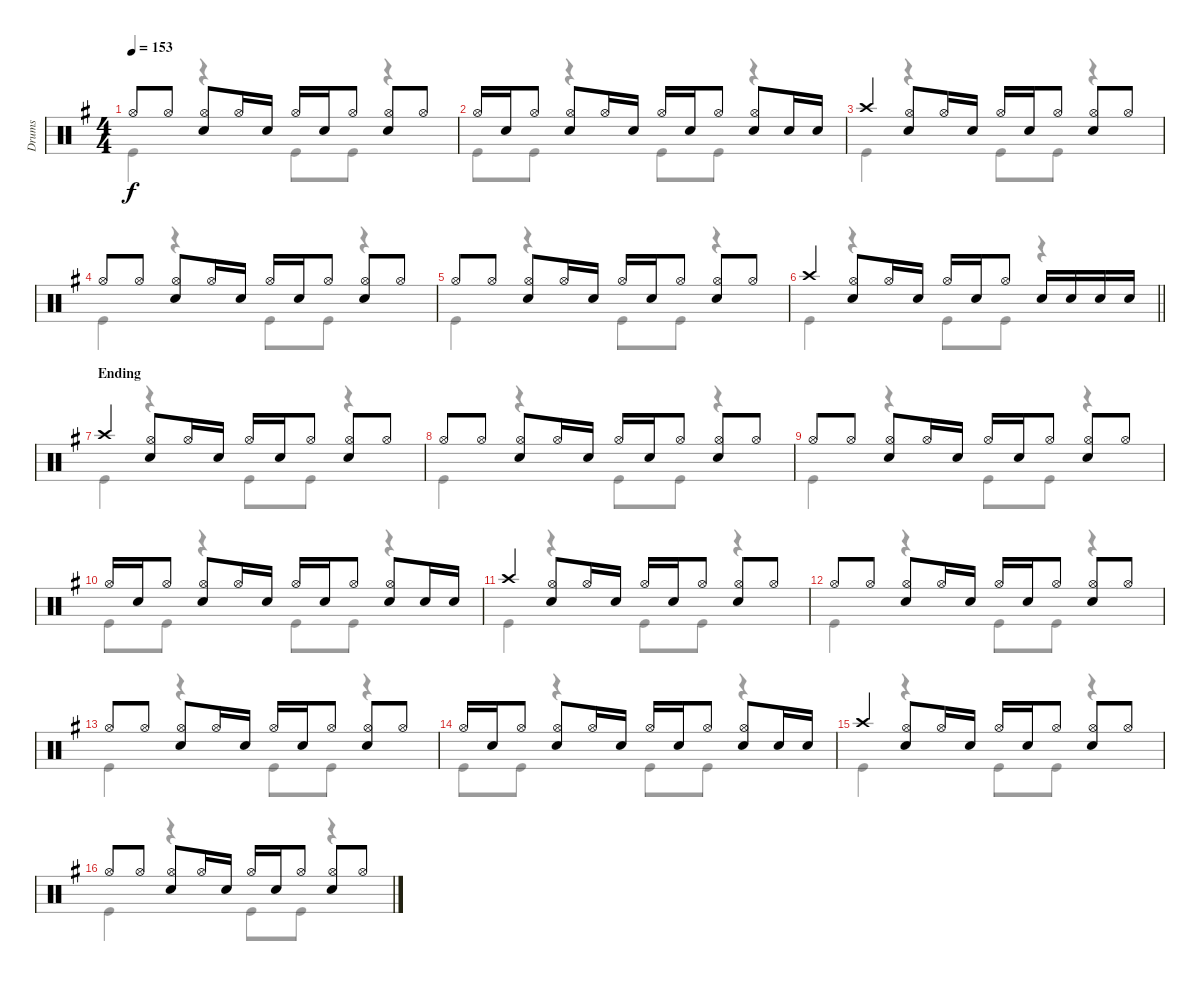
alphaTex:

\track ("Drums" "Drums") {instrument percussion}
\staff {score}
\articulation defaults
\voice
\ts (4 4)
\tempo 153
\clef neutral
\ks g "Hi-Hat (open)".8{dy f} "Hi-Hat (open)".8
("Hi-Hat (open)" "Snare (hit) 2").8 "Hi-Hat (open)".16 "Snare (hit) 2".16 "Hi-Hat (open)".16 "Snare (hit) 2".16 "Hi-Hat (open)".8 ("Hi-Hat (open)" "Snare (hit) 2").8 "Hi-Hat (open)".8 |
"Hi-Hat (open)".16 "Snare (hit) 2".16 "Hi-Hat (open)".8 ("Hi-Hat (open)" "Snare (hit) 2").8 "Hi-Hat (open)".16 "Snare (hit) 2".16 "Hi-Hat (open)".16 "Snare (hit) 2".16 "Hi-Hat (open)".8 ("Hi-Hat (open)" "Snare (hit) 2").8 "Snare (hit) 2".16 "Snare (hit) 2".16 |
"Crash high (hit)".4 ("Hi-Hat (open)" "Snare (hit) 2").8 "Hi-Hat (open)".16 "Snare (hit) 2".16 "Hi-Hat (open)".16 "Snare (hit) 2".16 "Hi-Hat (open)".8 ("Hi-Hat (open)" "Snare (hit) 2").8 "Hi-Hat (open)".8 |
"Hi-Hat (open)".8 "Hi-Hat (open)".8 ("Hi-Hat (open)" "Snare (hit) 2").8 "Hi-Hat (open)".16 "Snare (hit) 2".16 "Hi-Hat (open)".16 "Snare (hit) 2".16 "Hi-Hat (open)".8 ("Hi-Hat (open)" "Snare (hit) 2").8 "Hi-Hat (open)".8 |
"Hi-Hat (open)".8 "Hi-Hat (open)".8 ("Hi-Hat (open)" "Snare (hit) 2").8 "Hi-Hat (open)".16 "Snare (hit) 2".16 "Hi-Hat (open)".16 "Snare (hit) 2".16 "Hi-Hat (open)".8 ("Hi-Hat (open)" "Snare (hit) 2").8 "Hi-Hat (open)".8 |
\barLineRight lightlight "Crash high (hit)".4
("Hi-Hat (open)" "Snare (hit) 2").8 "Hi-Hat (open)".16 "Snare (hit) 2".16 "Hi-Hat (open)".16 "Snare (hit) 2".16 "Hi-Hat (open)".8 "Snare (hit) 2".16 "Snare (hit) 2".16 "Snare (hit) 2".16 "Snare (hit) 2".16 |
\section ("" "Ending")
"Crash high (hit)".4 ("Hi-Hat (open)" "Snare (hit) 2").8 "Hi-Hat (open)".16 "Snare (hit) 2".16 "Hi-Hat (open)".16 "Snare (hit) 2".16 "Hi-Hat (open)".8 ("Hi-Hat (open)" "Snare (hit) 2").8 "Hi-Hat (open)".8 |
"Hi-Hat (open)".8 "Hi-Hat (open)".8 ("Hi-Hat (open)" "Snare (hit) 2").8 "Hi-Hat (open)".16 "Snare (hit) 2".16 "Hi-Hat (open)".16 "Snare (hit) 2".16 "Hi-Hat (open)".8 ("Hi-Hat (open)" "Snare (hit) 2").8 "Hi-Hat (open)".8 |
"Hi-Hat (open)".8 "Hi-Hat (open)".8 ("Hi-Hat (open)" "Snare (hit) 2").8 "Hi-Hat (open)".16 "Snare (hit) 2".16 "Hi-Hat (open)".16 "Snare (hit) 2".16 "Hi-Hat (open)".8 ("Hi-Hat (open)" "Snare (hit) 2").8 "Hi-Hat (open)".8 |
"Hi-Hat (open)".16 "Snare (hit) 2".16 "Hi-Hat (open)".8 ("Hi-Hat (open)" "Snare (hit) 2").8 "Hi-Hat (open)".16 "Snare (hit) 2".16 "Hi-Hat (open)".16 "Snare (hit) 2".16 "Hi-Hat (open)".8 ("Hi-Hat (open)" "Snare (hit) 2").8 "Snare (hit) 2".16 "Snare (hit) 2".16 |
"Crash high (hit)".4 ("Hi-Hat (open)" "Snare (hit) 2").8 "Hi-Hat (open)".16 "Snare (hit) 2".16 "Hi-Hat (open)".16 "Snare (hit) 2".16 "Hi-Hat (open)".8 ("Hi-Hat (open)" "Snare (hit) 2").8 "Hi-Hat (open)".8 |
"Hi-Hat (open)".8 "Hi-Hat (open)".8 ("Hi-Hat (open)" "Snare (hit) 2").8 "Hi-Hat (open)".16 "Snare (hit) 2".16 "Hi-Hat (open)".16 "Snare (hit) 2".16 "Hi-Hat (open)".8 ("Hi-Hat (open)" "Snare (hit) 2").8 "Hi-Hat (open)".8 |
"Hi-Hat (open)".8 "Hi-Hat (open)".8 ("Hi-Hat (open)" "Snare (hit) 2").8 "Hi-Hat (open)".16 "Snare (hit) 2".16 "Hi-Hat (open)".16 "Snare (hit) 2".16 "Hi-Hat (open)".8 ("Hi-Hat (open)" "Snare (hit) 2").8 "Hi-Hat (open)".8 |
"Hi-Hat (open)".16 "Snare (hit) 2".16 "Hi-Hat (open)".8 ("Hi-Hat (open)" "Snare (hit) 2").8 "Hi-Hat (open)".16 "Snare (hit) 2".16 "Hi-Hat (open)".16 "Snare (hit) 2".16 "Hi-Hat (open)".8 ("Hi-Hat (open)" "Snare (hit) 2").8 "Snare (hit) 2".16 "Snare (hit) 2".16 |
"Crash high (hit)".4 ("Hi-Hat (open)" "Snare (hit) 2").8 "Hi-Hat (open)".16 "Snare (hit) 2".16 "Hi-Hat (open)".16 "Snare (hit) 2".16 "Hi-Hat (open)".8 ("Hi-Hat (open)" "Snare (hit) 2").8 "Hi-Hat (open)".8 |
"Hi-Hat (open)".8 "Hi-Hat (open)".8 ("Hi-Hat (open)" "Snare (hit) 2").8 "Hi-Hat (open)".16 "Snare (hit) 2".16 "Hi-Hat (open)".16 "Snare (hit) 2".16 "Hi-Hat (open)".8 ("Hi-Hat (open)" "Snare (hit) 2").8 "Hi-Hat (open)".8
\voice
\clef neutral
\ottava regular
\simile none
\ks g "Kick (hit)".4{dy f}
r.4 "Kick (hit)".8 "Kick (hit)".8 r.4 |
"Kick (hit)".8 "Kick (hit)".8 r.4 "Kick (hit)".8 "Kick (hit)".8 r.4 |
"Kick (hit)".4 r.4 "Kick (hit)".8 "Kick (hit)".8 r.4 |
"Kick (hit)".4 r.4 "Kick (hit)".8 "Kick (hit)".8 r.4 |
"Kick (hit)".4 r.4 "Kick (hit)".8 "Kick (hit)".8 r.4 |
\barLineRight lightlight "Kick (hit)".4
r.4 "Kick (hit)".8 "Kick (hit)".8 r.4 |
"Kick (hit)".4 r.4 "Kick (hit)".8 "Kick (hit)".8 r.4 |
"Kick (hit)".4 r.4 "Kick (hit)".8 "Kick (hit)".8 r.4 |
"Kick (hit)".4 r.4 "Kick (hit)".8 "Kick (hit)".8 r.4 |
"Kick (hit)".8 "Kick (hit)".8 r.4 "Kick (hit)".8 "Kick (hit)".8 r.4 |
"Kick (hit)".4 r.4 "Kick (hit)".8 "Kick (hit)".8 r.4 |
"Kick (hit)".4 r.4 "Kick (hit)".8 "Kick (hit)".8 r.4 |
"Kick (hit)".4 r.4 "Kick (hit)".8 "Kick (hit)".8 r.4 |
"Kick (hit)".8 "Kick (hit)".8 r.4 "Kick (hit)".8 "Kick (hit)".8 r.4 |
"Kick (hit)".4 r.4 "Kick (hit)".8 "Kick (hit)".8 r.4 |
"Kick (hit)".4 r.4 "Kick (hit)".8 "Kick (hit)".8 r.4
